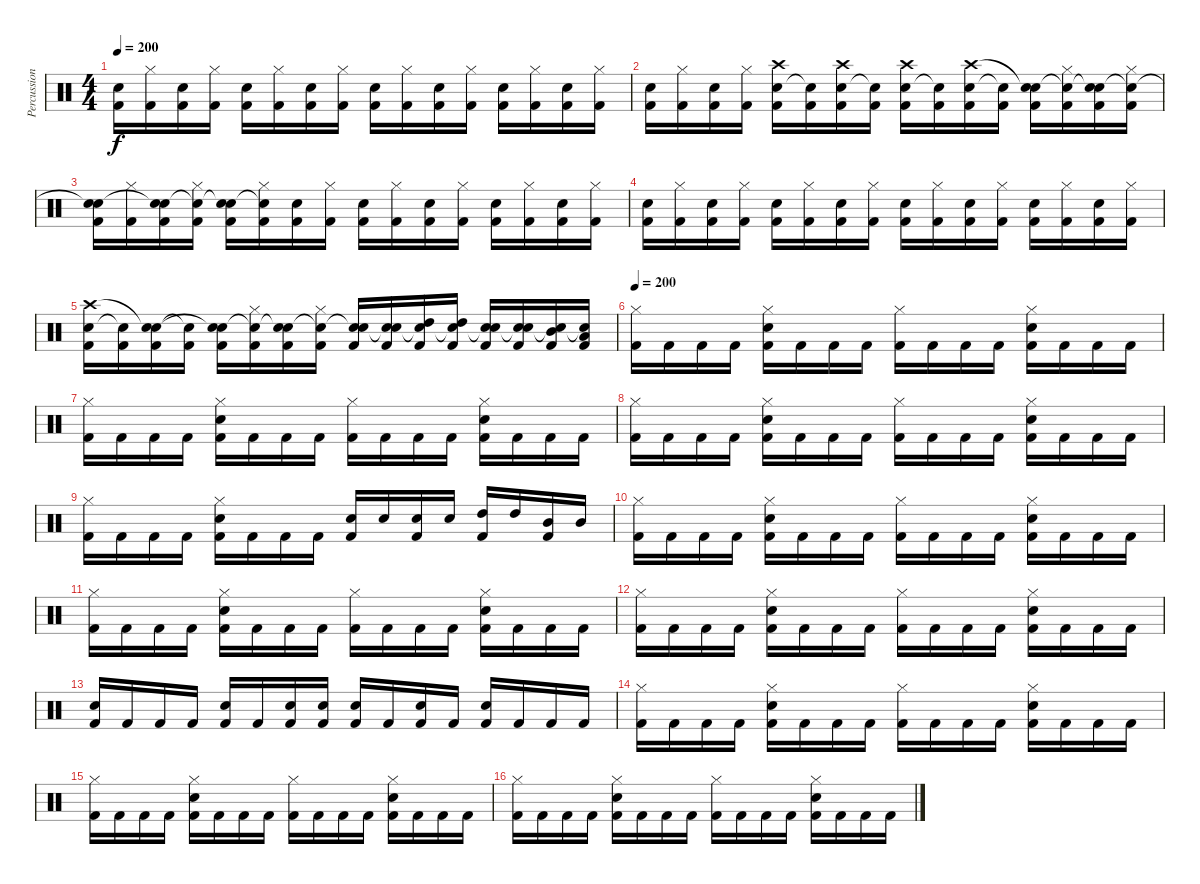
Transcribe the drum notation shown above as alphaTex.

\track ("Percussion" "Percussion") {instrument percussion}
\staff {score}
\articulation defaults
\ts (4 4)
\tempo 200
\clef neutral
\ks c
("Kick (hit) 2" "Snare (hit) 2").16{dy f} ("Kick (hit) 2" "Hi-Hat (closed)").16 ("Kick (hit) 2" "Snare (hit) 2").16 ("Kick (hit) 2" "Hi-Hat (closed)").16 ("Kick (hit) 2" "Snare (hit) 2").16 ("Kick (hit) 2" "Hi-Hat (closed)").16 ("Kick (hit) 2" "Snare (hit) 2").16 ("Kick (hit) 2" "Hi-Hat (closed)").16 ("Kick (hit) 2" "Snare (hit) 2").16 ("Kick (hit) 2" "Hi-Hat (closed)").16 ("Kick (hit) 2" "Snare (hit) 2").16 ("Kick (hit) 2" "Hi-Hat (closed)").16 ("Kick (hit) 2" "Snare (hit) 2").16 ("Kick (hit) 2" "Hi-Hat (closed)").16 ("Kick (hit) 2" "Snare (hit) 2").16 ("Kick (hit) 2" "Hi-Hat (closed)").16 |
("Kick (hit) 2" "Snare (hit) 2").16 ("Kick (hit) 2" "Hi-Hat (closed)").16 ("Kick (hit) 2" "Snare (hit) 2").16 ("Kick (hit) 2" "Hi-Hat (closed)").16 ("Kick (hit) 2" "Snare (hit) 2" "Crash high (hit)").16 ("Kick (hit) 2" "Snare (hit)"{t}).16 ("Kick (hit) 2" "Snare (hit) 2" "Crash high (hit)").16 ("Kick (hit) 2" "Snare (hit)"{t}).16 ("Kick (hit) 2" "Snare (hit) 2" "Crash high (hit)").16 ("Kick (hit) 2" "Snare (hit)"{t}).16 ("Kick (hit) 2" "Snare (hit) 2" "Crash high (hit)").16 ("Kick (hit) 2" "Snare (hit)"{t}).16 ("Kick (hit) 2" "Snare (hit) 2" "Snare (hit)"{t}).16 ("Kick (hit) 2" "Hi-Hat (closed)" "Snare (hit)"{t}).16 ("Kick (hit) 2" "Snare (hit) 2" "Snare (hit)"{t}).16 ("Kick (hit) 2" "Hi-Hat (closed)" "Snare (hit)"{t}).16 |
("Kick (hit) 2" "Snare (hit) 2" "Snare (hit)"{t}).16 ("Kick (hit) 2" "Hi-Hat (closed)").16 ("Kick (hit) 2" "Snare (hit) 2" "Snare (hit)"{t}).16 ("Kick (hit) 2" "Hi-Hat (closed)" "Snare (hit)"{t}).16 ("Kick (hit) 2" "Snare (hit) 2" "Snare (hit)"{t}).16 ("Kick (hit) 2" "Hi-Hat (closed)" "Snare (hit)"{t}).16 ("Kick (hit) 2" "Snare (hit) 2").16 ("Kick (hit) 2" "Hi-Hat (closed)").16 ("Kick (hit) 2" "Snare (hit) 2").16 ("Kick (hit) 2" "Hi-Hat (closed)").16 ("Kick (hit) 2" "Snare (hit) 2").16 ("Kick (hit) 2" "Hi-Hat (closed)").16 ("Kick (hit) 2" "Snare (hit) 2").16 ("Kick (hit) 2" "Hi-Hat (closed)").16 ("Kick (hit) 2" "Snare (hit) 2").16 ("Kick (hit) 2" "Hi-Hat (closed)").16 |
("Kick (hit) 2" "Snare (hit) 2").16 ("Kick (hit) 2" "Hi-Hat (closed)").16 ("Kick (hit) 2" "Snare (hit) 2").16 ("Kick (hit) 2" "Hi-Hat (closed)").16 ("Kick (hit) 2" "Snare (hit) 2").16 ("Kick (hit) 2" "Hi-Hat (closed)").16 ("Kick (hit) 2" "Snare (hit) 2").16 ("Kick (hit) 2" "Hi-Hat (closed)").16 ("Kick (hit) 2" "Snare (hit) 2").16 ("Kick (hit) 2" "Hi-Hat (closed)").16 ("Kick (hit) 2" "Snare (hit) 2").16 ("Kick (hit) 2" "Hi-Hat (closed)").16 ("Kick (hit) 2" "Snare (hit) 2").16 ("Kick (hit) 2" "Hi-Hat (closed)").16 ("Kick (hit) 2" "Snare (hit) 2").16 ("Kick (hit) 2" "Hi-Hat (closed)").16 |
("Kick (hit) 2" "Snare (hit) 2" "Crash high (hit)").16 ("Kick (hit) 2" "Snare (hit)"{t}).16 ("Kick (hit) 2" "Snare (hit) 2" "Snare (hit)"{t}).16 ("Kick (hit) 2" "Snare (hit)"{t}).16 ("Kick (hit) 2" "Snare (hit) 2" "Snare (hit)"{t}).16 ("Kick (hit) 2" "Hi-Hat (closed)" "Snare (hit)"{t}).16 ("Kick (hit) 2" "Snare (hit) 2" "Snare (hit)"{t}).16 ("Kick (hit) 2" "Hi-Hat (closed)" "Snare (hit)"{t}).16 ("Kick (hit) 2" "Snare (hit) 2" "Snare (hit)"{t}).16 ("Kick (hit) 2" "Snare (hit) 2" "Snare (hit)"{t}).16 ("Kick (hit) 2" "High Tom (hit)" "Snare (hit)"{t}).16 ("Kick (hit) 2" "High Tom (hit)" "Snare (hit)"{t}).16 ("Kick (hit) 2" "Snare (hit) 2" "Snare (hit)"{t}).16 ("Kick (hit) 2" "Snare (hit) 2" "Snare (hit)"{t}).16 ("Kick (hit) 2" "Mid Tom (hit)" "Snare (hit)"{t}).16 ("Kick (hit) 2" "Low Tom (hit)" "Snare (hit)"{t}).16 |
\tempo 200
("Hi-Hat (closed)" "Kick (hit) 2").16 "Kick (hit) 2".16 "Kick (hit) 2".16 "Kick (hit) 2".16 ("Hi-Hat (closed)" "Snare (hit) 2" "Kick (hit) 2").16 "Kick (hit) 2".16 "Kick (hit) 2".16 "Kick (hit) 2".16 ("Hi-Hat (closed)" "Kick (hit) 2").16 "Kick (hit) 2".16 "Kick (hit) 2".16 "Kick (hit) 2".16 ("Hi-Hat (closed)" "Snare (hit) 2" "Kick (hit) 2").16 "Kick (hit) 2".16 "Kick (hit) 2".16 "Kick (hit) 2".16 |
("Hi-Hat (closed)" "Kick (hit) 2").16 "Kick (hit) 2".16 "Kick (hit) 2".16 "Kick (hit) 2".16 ("Hi-Hat (closed)" "Snare (hit) 2" "Kick (hit) 2").16 "Kick (hit) 2".16 "Kick (hit) 2".16 "Kick (hit) 2".16 ("Hi-Hat (closed)" "Kick (hit) 2").16 "Kick (hit) 2".16 "Kick (hit) 2".16 "Kick (hit) 2".16 ("Hi-Hat (closed)" "Snare (hit) 2" "Kick (hit) 2").16 "Kick (hit) 2".16 "Kick (hit) 2".16 "Kick (hit) 2".16 |
("Hi-Hat (closed)" "Kick (hit) 2").16 "Kick (hit) 2".16 "Kick (hit) 2".16 "Kick (hit) 2".16 ("Hi-Hat (closed)" "Snare (hit) 2" "Kick (hit) 2").16 "Kick (hit) 2".16 "Kick (hit) 2".16 "Kick (hit) 2".16 ("Hi-Hat (closed)" "Kick (hit) 2").16 "Kick (hit) 2".16 "Kick (hit) 2".16 "Kick (hit) 2".16 ("Hi-Hat (closed)" "Snare (hit) 2" "Kick (hit) 2").16 "Kick (hit) 2".16 "Kick (hit) 2".16 "Kick (hit) 2".16 |
("Hi-Hat (closed)" "Kick (hit) 2").16 "Kick (hit) 2".16 "Kick (hit) 2".16 "Kick (hit) 2".16 ("Hi-Hat (closed)" "Snare (hit) 2" "Kick (hit) 2").16 "Kick (hit) 2".16 "Kick (hit) 2".16 "Kick (hit) 2".16 ("Snare (hit) 2" "Kick (hit) 2").16 "Snare (hit) 2".16 ("Snare (hit) 2" "Kick (hit) 2").16 "Snare (hit) 2".16 ("High Tom (hit)" "Kick (hit) 2").16 "High Tom (hit)".16 ("Mid Tom (hit)" "Kick (hit) 2").16 "Mid Tom (hit)".16 |
("Hi-Hat (closed)" "Kick (hit) 2").16 "Kick (hit) 2".16 "Kick (hit) 2".16 "Kick (hit) 2".16 ("Hi-Hat (closed)" "Snare (hit) 2" "Kick (hit) 2").16 "Kick (hit) 2".16 "Kick (hit) 2".16 "Kick (hit) 2".16 ("Hi-Hat (closed)" "Kick (hit) 2").16 "Kick (hit) 2".16 "Kick (hit) 2".16 "Kick (hit) 2".16 ("Hi-Hat (closed)" "Snare (hit) 2" "Kick (hit) 2").16 "Kick (hit) 2".16 "Kick (hit) 2".16 "Kick (hit) 2".16 |
("Hi-Hat (closed)" "Kick (hit) 2").16 "Kick (hit) 2".16 "Kick (hit) 2".16 "Kick (hit) 2".16 ("Hi-Hat (closed)" "Snare (hit) 2" "Kick (hit) 2").16 "Kick (hit) 2".16 "Kick (hit) 2".16 "Kick (hit) 2".16 ("Hi-Hat (closed)" "Kick (hit) 2").16 "Kick (hit) 2".16 "Kick (hit) 2".16 "Kick (hit) 2".16 ("Hi-Hat (closed)" "Snare (hit) 2" "Kick (hit) 2").16 "Kick (hit) 2".16 "Kick (hit) 2".16 "Kick (hit) 2".16 |
("Hi-Hat (closed)" "Kick (hit) 2").16 "Kick (hit) 2".16 "Kick (hit) 2".16 "Kick (hit) 2".16 ("Hi-Hat (closed)" "Snare (hit) 2" "Kick (hit) 2").16 "Kick (hit) 2".16 "Kick (hit) 2".16 "Kick (hit) 2".16 ("Hi-Hat (closed)" "Kick (hit) 2").16 "Kick (hit) 2".16 "Kick (hit) 2".16 "Kick (hit) 2".16 ("Hi-Hat (closed)" "Snare (hit) 2" "Kick (hit) 2").16 "Kick (hit) 2".16 "Kick (hit) 2".16 "Kick (hit) 2".16 |
("Snare (hit) 2" "Kick (hit) 2").16 "Kick (hit) 2".16 "Kick (hit) 2".16 "Kick (hit) 2".16 ("Snare (hit) 2" "Kick (hit) 2").16 "Kick (hit) 2".16 ("Snare (hit) 2" "Kick (hit) 2").16 ("Snare (hit) 2" "Kick (hit) 2").16 ("Snare (hit) 2" "Kick (hit) 2").16 "Kick (hit) 2".16 ("Snare (hit) 2" "Kick (hit) 2").16 "Kick (hit) 2".16 ("Snare (hit) 2" "Kick (hit) 2").16 "Kick (hit) 2".16 "Kick (hit) 2".16 "Kick (hit) 2".16 |
("Hi-Hat (closed)" "Kick (hit) 2").16 "Kick (hit) 2".16 "Kick (hit) 2".16 "Kick (hit) 2".16 ("Hi-Hat (closed)" "Snare (hit) 2" "Kick (hit) 2").16 "Kick (hit) 2".16 "Kick (hit) 2".16 "Kick (hit) 2".16 ("Hi-Hat (closed)" "Kick (hit) 2").16 "Kick (hit) 2".16 "Kick (hit) 2".16 "Kick (hit) 2".16 ("Hi-Hat (closed)" "Snare (hit) 2" "Kick (hit) 2").16 "Kick (hit) 2".16 "Kick (hit) 2".16 "Kick (hit) 2".16 |
("Hi-Hat (closed)" "Kick (hit) 2").16 "Kick (hit) 2".16 "Kick (hit) 2".16 "Kick (hit) 2".16 ("Hi-Hat (closed)" "Snare (hit) 2" "Kick (hit) 2").16 "Kick (hit) 2".16 "Kick (hit) 2".16 "Kick (hit) 2".16 ("Hi-Hat (closed)" "Kick (hit) 2").16 "Kick (hit) 2".16 "Kick (hit) 2".16 "Kick (hit) 2".16 ("Hi-Hat (closed)" "Snare (hit) 2" "Kick (hit) 2").16 "Kick (hit) 2".16 "Kick (hit) 2".16 "Kick (hit) 2".16 |
("Hi-Hat (closed)" "Kick (hit) 2").16 "Kick (hit) 2".16 "Kick (hit) 2".16 "Kick (hit) 2".16 ("Hi-Hat (closed)" "Snare (hit) 2" "Kick (hit) 2").16 "Kick (hit) 2".16 "Kick (hit) 2".16 "Kick (hit) 2".16 ("Hi-Hat (closed)" "Kick (hit) 2").16 "Kick (hit) 2".16 "Kick (hit) 2".16 "Kick (hit) 2".16 ("Hi-Hat (closed)" "Snare (hit) 2" "Kick (hit) 2").16 "Kick (hit) 2".16 "Kick (hit) 2".16 "Kick (hit) 2".16
